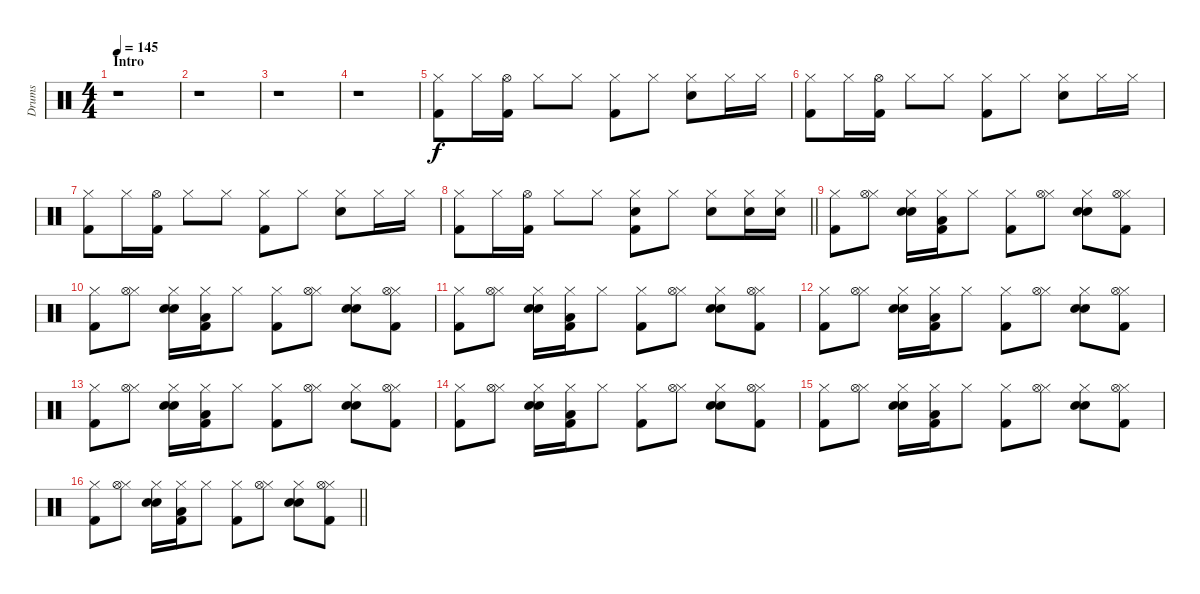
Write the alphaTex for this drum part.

\track ("Drums" "Drums") {instrument percussion}
\staff {score}
\articulation defaults
\ts (4 4)
\section ("" "Intro")
\tempo 145
\clef neutral
\ks c
r.1{dy f} |
r.1 |
r.1 |
r.1 |
("Hi-Hat (closed)" "Kick (hit) 2").8 "Hi-Hat (closed)".16 ("Hi-Hat (open)" "Kick (hit) 2").16 "Hi-Hat (closed)".8 "Hi-Hat (closed)".8 ("Hi-Hat (closed)" "Kick (hit) 2").8 "Hi-Hat (closed)".8 ("Hi-Hat (closed)" "Snare (hit) 2").8 "Hi-Hat (closed)".16 "Hi-Hat (closed)".16 |
("Hi-Hat (closed)" "Kick (hit) 2").8 "Hi-Hat (closed)".16 ("Hi-Hat (open)" "Kick (hit) 2").16 "Hi-Hat (closed)".8 "Hi-Hat (closed)".8 ("Hi-Hat (closed)" "Kick (hit) 2").8 "Hi-Hat (closed)".8 ("Hi-Hat (closed)" "Snare (hit) 2").8 "Hi-Hat (closed)".16 "Hi-Hat (closed)".16 |
("Hi-Hat (closed)" "Kick (hit) 2").8 "Hi-Hat (closed)".16 ("Hi-Hat (open)" "Kick (hit) 2").16 "Hi-Hat (closed)".8 "Hi-Hat (closed)".8 ("Hi-Hat (closed)" "Kick (hit) 2").8 "Hi-Hat (closed)".8 ("Hi-Hat (closed)" "Snare (hit) 2").8 "Hi-Hat (closed)".16 "Hi-Hat (closed)".16 |
\barLineRight lightlight
("Hi-Hat (closed)" "Kick (hit) 2").8 "Hi-Hat (closed)".16 ("Hi-Hat (open)" "Kick (hit) 2").16 "Hi-Hat (closed)".8 "Hi-Hat (closed)".8 ("Hi-Hat (closed)" "Snare (hit) 2" "Kick (hit) 2").8 "Hi-Hat (closed)".8 ("Hi-Hat (closed)" "Snare (hit) 2").8 ("Hi-Hat (closed)" "Snare (hit) 2").16 ("Hi-Hat (closed)" "Snare (hit) 2").16 |
("Hi-Hat (closed)" "Kick (hit) 2").8 ("Hi-Hat (closed)" "Hi-Hat (open)").8 ("Hi-Hat (closed)" "Snare (hit) 2" "Electric Snare (hit)").16 ("Hi-Hat (closed)" "Low Floor Tom (hit)" "Kick (hit) 2").16 "Hi-Hat (closed)".8 ("Hi-Hat (closed)" "Kick (hit) 2").8 ("Hi-Hat (closed)" "Hi-Hat (open)").8 ("Hi-Hat (closed)" "Snare (hit) 2" "Electric Snare (hit)").8 ("Hi-Hat (closed)" "Hi-Hat (open)" "Kick (hit) 2").8 |
("Hi-Hat (closed)" "Kick (hit) 2").8 ("Hi-Hat (closed)" "Hi-Hat (open)").8 ("Hi-Hat (closed)" "Snare (hit) 2" "Electric Snare (hit)").16 ("Hi-Hat (closed)" "Low Floor Tom (hit)" "Kick (hit) 2").16 "Hi-Hat (closed)".8 ("Hi-Hat (closed)" "Kick (hit) 2").8 ("Hi-Hat (closed)" "Hi-Hat (open)").8 ("Hi-Hat (closed)" "Snare (hit) 2" "Electric Snare (hit)").8 ("Hi-Hat (closed)" "Hi-Hat (open)" "Kick (hit) 2").8 |
("Hi-Hat (closed)" "Kick (hit) 2").8 ("Hi-Hat (closed)" "Hi-Hat (open)").8 ("Hi-Hat (closed)" "Snare (hit) 2" "Electric Snare (hit)").16 ("Hi-Hat (closed)" "Low Floor Tom (hit)" "Kick (hit) 2").16 "Hi-Hat (closed)".8 ("Hi-Hat (closed)" "Kick (hit) 2").8 ("Hi-Hat (closed)" "Hi-Hat (open)").8 ("Hi-Hat (closed)" "Snare (hit) 2" "Electric Snare (hit)").8 ("Hi-Hat (closed)" "Hi-Hat (open)" "Kick (hit) 2").8 |
("Hi-Hat (closed)" "Kick (hit) 2").8 ("Hi-Hat (closed)" "Hi-Hat (open)").8 ("Hi-Hat (closed)" "Snare (hit) 2" "Electric Snare (hit)").16 ("Hi-Hat (closed)" "Low Floor Tom (hit)" "Kick (hit) 2").16 "Hi-Hat (closed)".8 ("Hi-Hat (closed)" "Kick (hit) 2").8 ("Hi-Hat (closed)" "Hi-Hat (open)").8 ("Hi-Hat (closed)" "Snare (hit) 2" "Electric Snare (hit)").8 ("Hi-Hat (closed)" "Hi-Hat (open)" "Kick (hit) 2").8 |
("Hi-Hat (closed)" "Kick (hit) 2").8 ("Hi-Hat (closed)" "Hi-Hat (open)").8 ("Hi-Hat (closed)" "Snare (hit) 2" "Electric Snare (hit)").16 ("Hi-Hat (closed)" "Low Floor Tom (hit)" "Kick (hit) 2").16 "Hi-Hat (closed)".8 ("Hi-Hat (closed)" "Kick (hit) 2").8 ("Hi-Hat (closed)" "Hi-Hat (open)").8 ("Hi-Hat (closed)" "Snare (hit) 2" "Electric Snare (hit)").8 ("Hi-Hat (closed)" "Hi-Hat (open)" "Kick (hit) 2").8 |
("Hi-Hat (closed)" "Kick (hit) 2").8 ("Hi-Hat (closed)" "Hi-Hat (open)").8 ("Hi-Hat (closed)" "Snare (hit) 2" "Electric Snare (hit)").16 ("Hi-Hat (closed)" "Low Floor Tom (hit)" "Kick (hit) 2").16 "Hi-Hat (closed)".8 ("Hi-Hat (closed)" "Kick (hit) 2").8 ("Hi-Hat (closed)" "Hi-Hat (open)").8 ("Hi-Hat (closed)" "Snare (hit) 2" "Electric Snare (hit)").8 ("Hi-Hat (closed)" "Hi-Hat (open)" "Kick (hit) 2").8 |
("Hi-Hat (closed)" "Kick (hit) 2").8 ("Hi-Hat (closed)" "Hi-Hat (open)").8 ("Hi-Hat (closed)" "Snare (hit) 2" "Electric Snare (hit)").16 ("Hi-Hat (closed)" "Low Floor Tom (hit)" "Kick (hit) 2").16 "Hi-Hat (closed)".8 ("Hi-Hat (closed)" "Kick (hit) 2").8 ("Hi-Hat (closed)" "Hi-Hat (open)").8 ("Hi-Hat (closed)" "Snare (hit) 2" "Electric Snare (hit)").8 ("Hi-Hat (closed)" "Hi-Hat (open)" "Kick (hit) 2").8 |
\barLineRight lightlight
("Hi-Hat (closed)" "Kick (hit) 2").8 ("Hi-Hat (closed)" "Hi-Hat (open)").8 ("Hi-Hat (closed)" "Snare (hit) 2" "Electric Snare (hit)").16 ("Hi-Hat (closed)" "Low Floor Tom (hit)" "Kick (hit) 2").16 "Hi-Hat (closed)".8 ("Hi-Hat (closed)" "Kick (hit) 2").8 ("Hi-Hat (closed)" "Hi-Hat (open)").8 ("Hi-Hat (closed)" "Snare (hit) 2" "Electric Snare (hit)").8 ("Hi-Hat (closed)" "Hi-Hat (open)" "Kick (hit) 2").8
